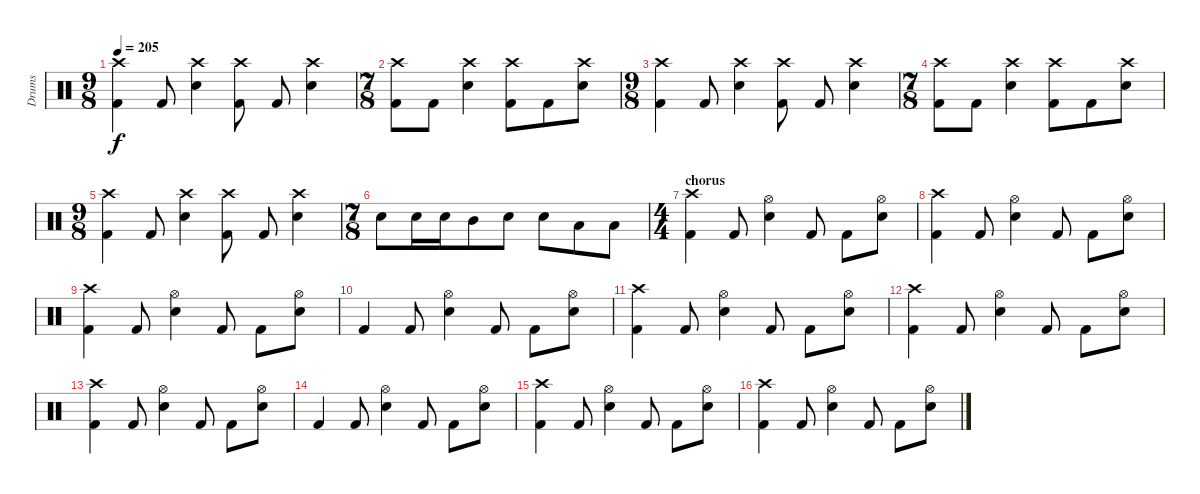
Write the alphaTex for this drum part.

\track ("Drums" "Drums") {instrument percussion}
\staff {score}
\articulation defaults
\ts (9 8)
\tempo 205
\clef neutral
\ks c
("Crash high (hit)" "Kick (hit) 2").4{dy f} "Kick (hit) 2".8 ("Crash high (hit)" "Electric Snare (hit)").4 ("Crash high (hit)" "Kick (hit) 2").8 "Kick (hit) 2".8 ("Crash high (hit)" "Electric Snare (hit)").4 |
\ts (7 8)
("Crash high (hit)" "Kick (hit) 2").8 "Kick (hit) 2".8 ("Crash high (hit)" "Electric Snare (hit)").4 ("Crash high (hit)" "Kick (hit) 2").8 "Kick (hit) 2".8 ("Crash high (hit)" "Electric Snare (hit)").8 |
\ts (9 8)
("Crash high (hit)" "Kick (hit) 2").4 "Kick (hit) 2".8 ("Crash high (hit)" "Electric Snare (hit)").4 ("Crash high (hit)" "Kick (hit) 2").8 "Kick (hit) 2".8 ("Crash high (hit)" "Electric Snare (hit)").4 |
\ts (7 8)
("Crash high (hit)" "Kick (hit) 2").8 "Kick (hit) 2".8 ("Crash high (hit)" "Electric Snare (hit)").4 ("Crash high (hit)" "Kick (hit) 2").8 "Kick (hit) 2".8 ("Crash high (hit)" "Electric Snare (hit)").8 |
\ts (9 8)
("Crash high (hit)" "Kick (hit) 2").4 "Kick (hit) 2".8 ("Crash high (hit)" "Electric Snare (hit)").4 ("Crash high (hit)" "Kick (hit) 2").8 "Kick (hit) 2".8 ("Crash high (hit)" "Electric Snare (hit)").4 |
\ts (7 8)
"Electric Snare (hit)".8 "Electric Snare (hit)".16 "Electric Snare (hit)".16 "Mid Tom (hit)".8 "Electric Snare (hit)".8 "Electric Snare (hit)".8 "Low Tom (hit)".8 "Low Tom (hit)".8 |
\ts (4 4)
\section ("" "chorus")
("Crash high (hit)" "Kick (hit) 2").4 "Kick (hit) 2".8 ("Hi-Hat (open)" "Electric Snare (hit)").4 "Kick (hit) 2".8 "Kick (hit) 2".8 ("Hi-Hat (open)" "Electric Snare (hit)").8 |
("Crash high (hit)" "Kick (hit) 2").4 "Kick (hit) 2".8 ("Hi-Hat (open)" "Electric Snare (hit)").4 "Kick (hit) 2".8 "Kick (hit) 2".8 ("Hi-Hat (open)" "Electric Snare (hit)").8 |
("Crash high (hit)" "Kick (hit) 2").4 "Kick (hit) 2".8 ("Hi-Hat (open)" "Electric Snare (hit)").4 "Kick (hit) 2".8 "Kick (hit) 2".8 ("Hi-Hat (open)" "Electric Snare (hit)").8 |
"Kick (hit) 2".4 "Kick (hit) 2".8 ("Hi-Hat (open)" "Electric Snare (hit)").4 "Kick (hit) 2".8 "Kick (hit) 2".8 ("Hi-Hat (open)" "Electric Snare (hit)").8 |
("Crash high (hit)" "Kick (hit) 2").4 "Kick (hit) 2".8 ("Hi-Hat (open)" "Electric Snare (hit)").4 "Kick (hit) 2".8 "Kick (hit) 2".8 ("Hi-Hat (open)" "Electric Snare (hit)").8 |
("Crash high (hit)" "Kick (hit) 2").4 "Kick (hit) 2".8 ("Hi-Hat (open)" "Electric Snare (hit)").4 "Kick (hit) 2".8 "Kick (hit) 2".8 ("Hi-Hat (open)" "Electric Snare (hit)").8 |
("Crash high (hit)" "Kick (hit) 2").4 "Kick (hit) 2".8 ("Hi-Hat (open)" "Electric Snare (hit)").4 "Kick (hit) 2".8 "Kick (hit) 2".8 ("Hi-Hat (open)" "Electric Snare (hit)").8 |
"Kick (hit) 2".4 "Kick (hit) 2".8 ("Hi-Hat (open)" "Electric Snare (hit)").4 "Kick (hit) 2".8 "Kick (hit) 2".8 ("Hi-Hat (open)" "Electric Snare (hit)").8 |
("Crash high (hit)" "Kick (hit) 2").4 "Kick (hit) 2".8 ("Hi-Hat (open)" "Electric Snare (hit)").4 "Kick (hit) 2".8 "Kick (hit) 2".8 ("Hi-Hat (open)" "Electric Snare (hit)").8 |
("Crash high (hit)" "Kick (hit) 2").4 "Kick (hit) 2".8 ("Hi-Hat (open)" "Electric Snare (hit)").4 "Kick (hit) 2".8 "Kick (hit) 2".8 ("Hi-Hat (open)" "Electric Snare (hit)").8
